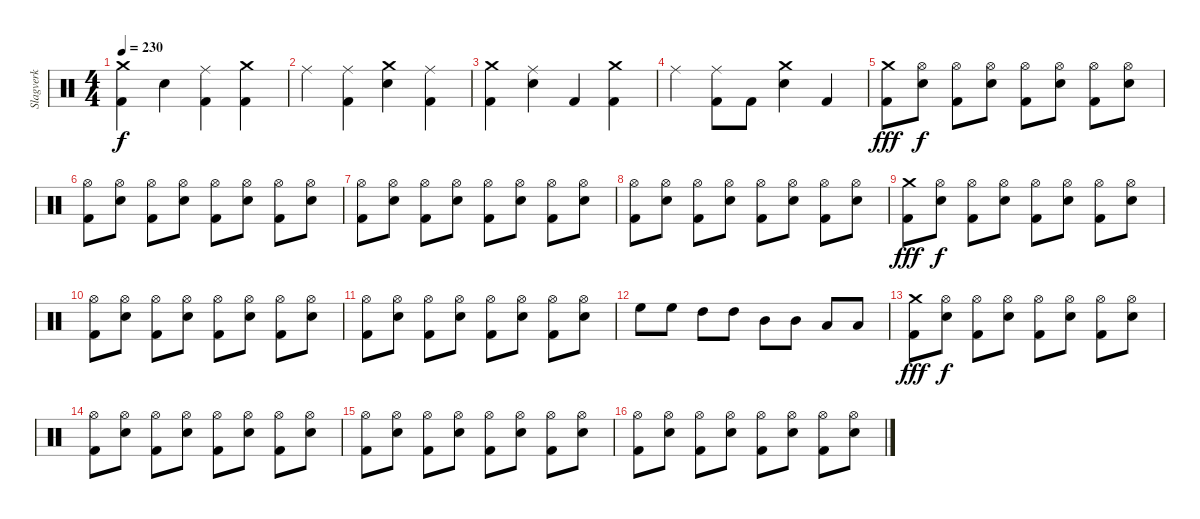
\track ("Slagverk" "Slagverk") {instrument percussion}
\staff {score}
\articulation defaults
\ts (4 4)
\tempo 230
\clef neutral
\ks c
("Kick (hit) 2" "Crash medium (hit)").4{dy f} "Snare (hit) 2".4 ("Kick (hit) 2" "Ride (middle)").4 ("Kick (hit) 2" "Crash medium (hit)").4 |
"Ride (middle)".4 ("Kick (hit) 2" "Ride (middle)").4 ("Snare (hit) 2" "Crash medium (hit)").4 ("Kick (hit) 2" "Ride (middle)").4 |
("Kick (hit) 2" "Crash medium (hit)").4 ("Snare (hit) 2" "Ride (middle)").4 "Kick (hit) 2".4 ("Kick (hit) 2" "Crash medium (hit)").4 |
"Ride (middle)".4 ("Kick (hit) 2" "Ride (middle)").8 "Kick (hit) 2".8 ("Snare (hit) 2" "Crash medium (hit)").4 "Kick (hit) 2".4 |
("Kick (hit) 2" "Crash medium (hit)").8{dy fff} ("Snare (hit) 2" "Hi-Hat (open)").8{dy f} ("Kick (hit) 2" "Hi-Hat (open)").8 ("Snare (hit) 2" "Hi-Hat (open)").8 ("Kick (hit) 2" "Hi-Hat (open)").8 ("Snare (hit) 2" "Hi-Hat (open)").8 ("Kick (hit) 2" "Hi-Hat (open)").8 ("Snare (hit) 2" "Hi-Hat (open)").8 |
("Kick (hit) 2" "Hi-Hat (open)").8 ("Snare (hit) 2" "Hi-Hat (open)").8 ("Kick (hit) 2" "Hi-Hat (open)").8 ("Snare (hit) 2" "Hi-Hat (open)").8 ("Kick (hit) 2" "Hi-Hat (open)").8 ("Snare (hit) 2" "Hi-Hat (open)").8 ("Kick (hit) 2" "Hi-Hat (open)").8 ("Snare (hit) 2" "Hi-Hat (open)").8 |
("Kick (hit) 2" "Hi-Hat (open)").8 ("Snare (hit) 2" "Hi-Hat (open)").8 ("Kick (hit) 2" "Hi-Hat (open)").8 ("Snare (hit) 2" "Hi-Hat (open)").8 ("Kick (hit) 2" "Hi-Hat (open)").8 ("Snare (hit) 2" "Hi-Hat (open)").8 ("Kick (hit) 2" "Hi-Hat (open)").8 ("Snare (hit) 2" "Hi-Hat (open)").8 |
("Kick (hit) 2" "Hi-Hat (open)").8 ("Snare (hit) 2" "Hi-Hat (open)").8 ("Kick (hit) 2" "Hi-Hat (open)").8 ("Snare (hit) 2" "Hi-Hat (open)").8 ("Kick (hit) 2" "Hi-Hat (open)").8 ("Snare (hit) 2" "Hi-Hat (open)").8 ("Kick (hit) 2" "Hi-Hat (open)").8 ("Snare (hit) 2" "Hi-Hat (open)").8 |
("Kick (hit) 2" "Crash medium (hit)").8{dy fff} ("Snare (hit) 2" "Hi-Hat (open)").8{dy f} ("Kick (hit) 2" "Hi-Hat (open)").8 ("Snare (hit) 2" "Hi-Hat (open)").8 ("Kick (hit) 2" "Hi-Hat (open)").8 ("Snare (hit) 2" "Hi-Hat (open)").8 ("Kick (hit) 2" "Hi-Hat (open)").8 ("Snare (hit) 2" "Hi-Hat (open)").8 |
("Kick (hit) 2" "Hi-Hat (open)").8 ("Snare (hit) 2" "Hi-Hat (open)").8 ("Kick (hit) 2" "Hi-Hat (open)").8 ("Snare (hit) 2" "Hi-Hat (open)").8 ("Kick (hit) 2" "Hi-Hat (open)").8 ("Snare (hit) 2" "Hi-Hat (open)").8 ("Kick (hit) 2" "Hi-Hat (open)").8 ("Snare (hit) 2" "Hi-Hat (open)").8 |
("Kick (hit) 2" "Hi-Hat (open)").8 ("Snare (hit) 2" "Hi-Hat (open)").8 ("Kick (hit) 2" "Hi-Hat (open)").8 ("Snare (hit) 2" "Hi-Hat (open)").8 ("Kick (hit) 2" "Hi-Hat (open)").8 ("Snare (hit) 2" "Hi-Hat (open)").8 ("Kick (hit) 2" "Hi-Hat (open)").8 ("Snare (hit) 2" "Hi-Hat (open)").8 |
"High Floor Tom (hit)".8 "High Floor Tom (hit)".8 "High Tom (hit)".8 "High Tom (hit)".8 "Mid Tom (hit)".8 "Mid Tom (hit)".8 "Low Tom (hit)".8 "Low Tom (hit)".8 |
("Kick (hit) 2" "Crash medium (hit)").8{dy fff} ("Snare (hit) 2" "Hi-Hat (open)").8{dy f} ("Kick (hit) 2" "Hi-Hat (open)").8 ("Snare (hit) 2" "Hi-Hat (open)").8 ("Kick (hit) 2" "Hi-Hat (open)").8 ("Snare (hit) 2" "Hi-Hat (open)").8 ("Kick (hit) 2" "Hi-Hat (open)").8 ("Snare (hit) 2" "Hi-Hat (open)").8 |
("Kick (hit) 2" "Hi-Hat (open)").8 ("Snare (hit) 2" "Hi-Hat (open)").8 ("Kick (hit) 2" "Hi-Hat (open)").8 ("Snare (hit) 2" "Hi-Hat (open)").8 ("Kick (hit) 2" "Hi-Hat (open)").8 ("Snare (hit) 2" "Hi-Hat (open)").8 ("Kick (hit) 2" "Hi-Hat (open)").8 ("Snare (hit) 2" "Hi-Hat (open)").8 |
("Kick (hit) 2" "Hi-Hat (open)").8 ("Snare (hit) 2" "Hi-Hat (open)").8 ("Kick (hit) 2" "Hi-Hat (open)").8 ("Snare (hit) 2" "Hi-Hat (open)").8 ("Kick (hit) 2" "Hi-Hat (open)").8 ("Snare (hit) 2" "Hi-Hat (open)").8 ("Kick (hit) 2" "Hi-Hat (open)").8 ("Snare (hit) 2" "Hi-Hat (open)").8 |
("Kick (hit) 2" "Hi-Hat (open)").8 ("Snare (hit) 2" "Hi-Hat (open)").8 ("Kick (hit) 2" "Hi-Hat (open)").8 ("Snare (hit) 2" "Hi-Hat (open)").8 ("Kick (hit) 2" "Hi-Hat (open)").8 ("Snare (hit) 2" "Hi-Hat (open)").8 ("Kick (hit) 2" "Hi-Hat (open)").8 ("Snare (hit) 2" "Hi-Hat (open)").8
